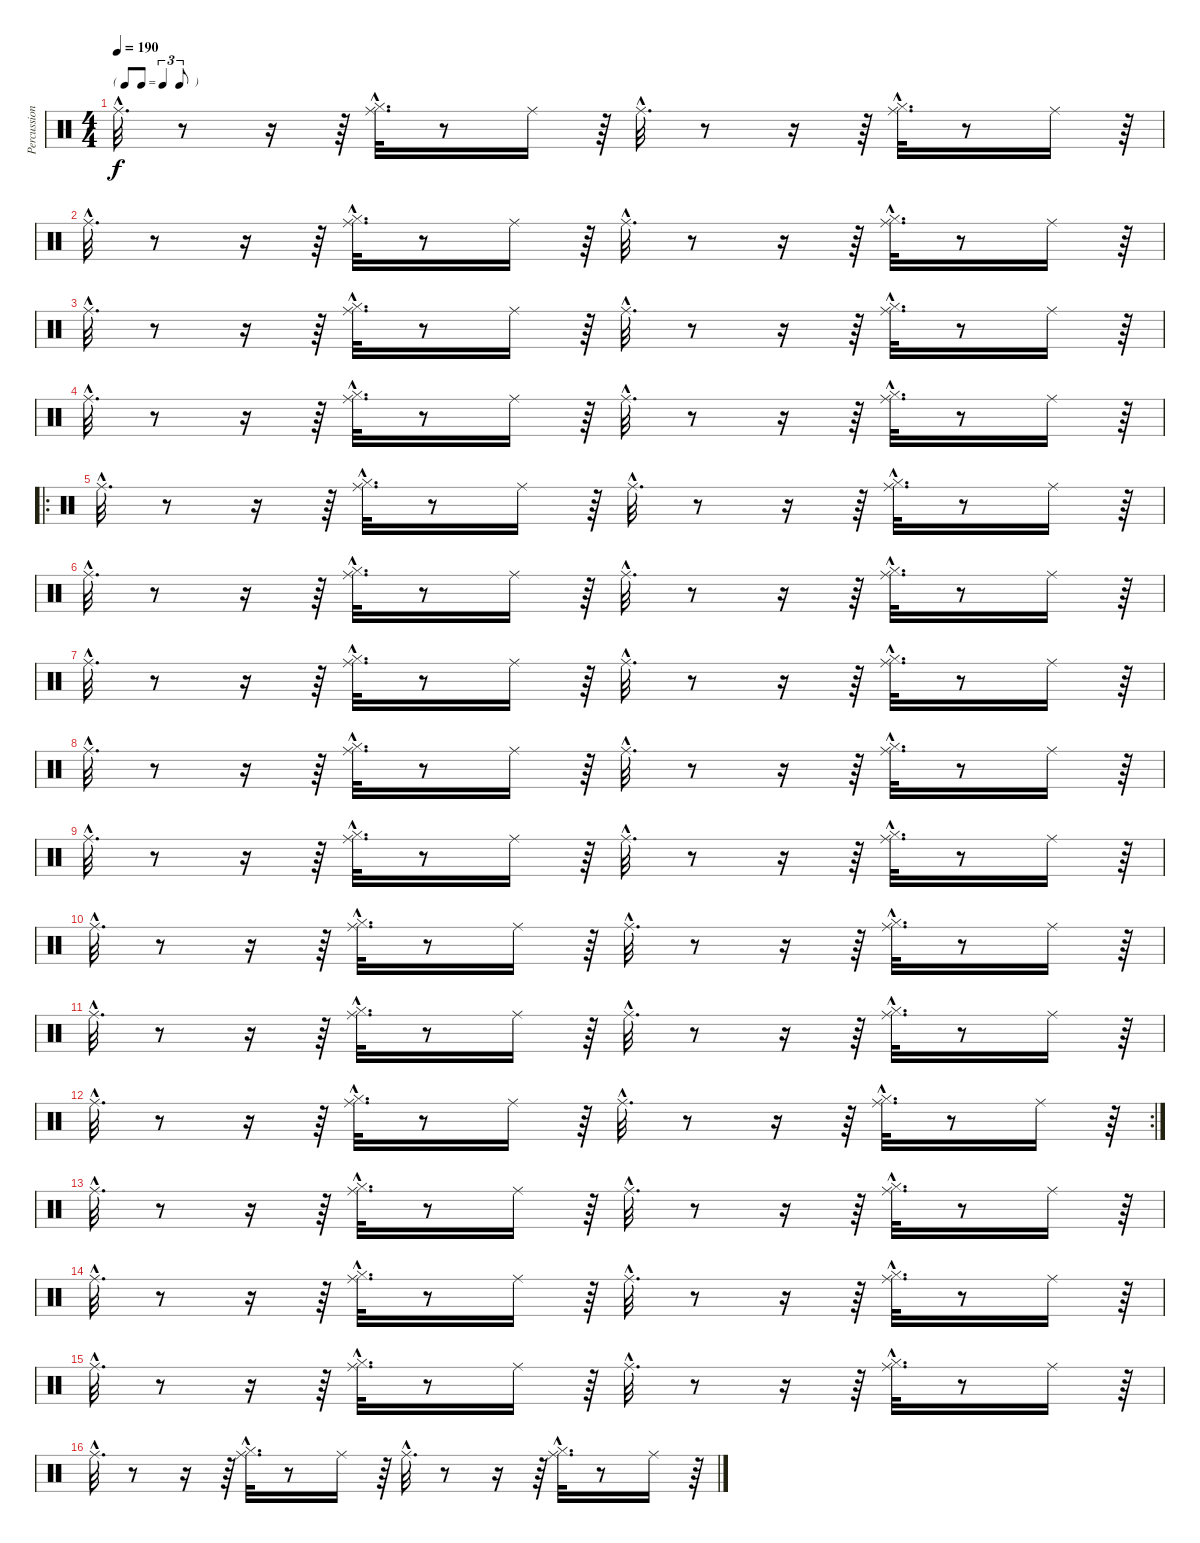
\track ("Percussions" "Percussion") {instrument percussion}
\staff {score}
\articulation defaults
\ts (4 4)
\tf triplet8th
\tempo 190
\clef neutral
\ks c "Ride (middle)"{hac}.32{d dy f}
r.8 r.16 r.64 ("Hi-Hat (closed)"{hac} "Ride (middle)"{hac}).32{d} r.8 "Ride (middle)".16 r.64 "Ride (middle)"{hac}.32{d} r.8 r.16 r.64 ("Hi-Hat (closed)"{hac} "Ride (middle)"{hac}).32{d} r.8 "Ride (middle)".16 r.64 |
"Ride (middle)"{hac}.32{d} r.8 r.16 r.64 ("Hi-Hat (closed)"{hac} "Ride (middle)"{hac}).32{d} r.8 "Ride (middle)".16 r.64 "Ride (middle)"{hac}.32{d} r.8 r.16 r.64 ("Hi-Hat (closed)"{hac} "Ride (middle)"{hac}).32{d} r.8 "Ride (middle)".16 r.64 |
"Ride (middle)"{hac}.32{d} r.8 r.16 r.64 ("Hi-Hat (closed)"{hac} "Ride (middle)"{hac}).32{d} r.8 "Ride (middle)".16 r.64 "Ride (middle)"{hac}.32{d} r.8 r.16 r.64 ("Hi-Hat (closed)"{hac} "Ride (middle)"{hac}).32{d} r.8 "Ride (middle)".16 r.64 |
"Ride (middle)"{hac}.32{d} r.8 r.16 r.64 ("Hi-Hat (closed)"{hac} "Ride (middle)"{hac}).32{d} r.8 "Ride (middle)".16 r.64 "Ride (middle)"{hac}.32{d} r.8 r.16 r.64 ("Hi-Hat (closed)"{hac} "Ride (middle)"{hac}).32{d} r.8 "Ride (middle)".16 r.64 |
\ro "Ride (middle)"{hac}.32{d}
r.8 r.16 r.64 ("Hi-Hat (closed)"{hac} "Ride (middle)"{hac}).32{d} r.8 "Ride (middle)".16 r.64 "Ride (middle)"{hac}.32{d} r.8 r.16 r.64 ("Hi-Hat (closed)"{hac} "Ride (middle)"{hac}).32{d} r.8 "Ride (middle)".16 r.64 |
"Ride (middle)"{hac}.32{d} r.8 r.16 r.64 ("Hi-Hat (closed)"{hac} "Ride (middle)"{hac}).32{d} r.8 "Ride (middle)".16 r.64 "Ride (middle)"{hac}.32{d} r.8 r.16 r.64 ("Hi-Hat (closed)"{hac} "Ride (middle)"{hac}).32{d} r.8 "Ride (middle)".16 r.64 |
"Ride (middle)"{hac}.32{d} r.8 r.16 r.64 ("Hi-Hat (closed)"{hac} "Ride (middle)"{hac}).32{d} r.8 "Ride (middle)".16 r.64 "Ride (middle)"{hac}.32{d} r.8 r.16 r.64 ("Hi-Hat (closed)"{hac} "Ride (middle)"{hac}).32{d} r.8 "Ride (middle)".16 r.64 |
"Ride (middle)"{hac}.32{d} r.8 r.16 r.64 ("Hi-Hat (closed)"{hac} "Ride (middle)"{hac}).32{d} r.8 "Ride (middle)".16 r.64 "Ride (middle)"{hac}.32{d} r.8 r.16 r.64 ("Hi-Hat (closed)"{hac} "Ride (middle)"{hac}).32{d} r.8 "Ride (middle)".16 r.64 |
"Ride (middle)"{hac}.32{d} r.8 r.16 r.64 ("Hi-Hat (closed)"{hac} "Ride (middle)"{hac}).32{d} r.8 "Ride (middle)".16 r.64 "Ride (middle)"{hac}.32{d} r.8 r.16 r.64 ("Hi-Hat (closed)"{hac} "Ride (middle)"{hac}).32{d} r.8 "Ride (middle)".16 r.64 |
"Ride (middle)"{hac}.32{d} r.8 r.16 r.64 ("Hi-Hat (closed)"{hac} "Ride (middle)"{hac}).32{d} r.8 "Ride (middle)".16 r.64 "Ride (middle)"{hac}.32{d} r.8 r.16 r.64 ("Hi-Hat (closed)"{hac} "Ride (middle)"{hac}).32{d} r.8 "Ride (middle)".16 r.64 |
"Ride (middle)"{hac}.32{d} r.8 r.16 r.64 ("Hi-Hat (closed)"{hac} "Ride (middle)"{hac}).32{d} r.8 "Ride (middle)".16 r.64 "Ride (middle)"{hac}.32{d} r.8 r.16 r.64 ("Hi-Hat (closed)"{hac} "Ride (middle)"{hac}).32{d} r.8 "Ride (middle)".16 r.64 |
\rc 2 "Ride (middle)"{hac}.32{d}
r.8 r.16 r.64 ("Hi-Hat (closed)"{hac} "Ride (middle)"{hac}).32{d} r.8 "Ride (middle)".16 r.64 "Ride (middle)"{hac}.32{d} r.8 r.16 r.64 ("Hi-Hat (closed)"{hac} "Ride (middle)"{hac}).32{d} r.8 "Ride (middle)".16 r.64 |
"Ride (middle)"{hac}.32{d} r.8 r.16 r.64 ("Hi-Hat (closed)"{hac} "Ride (middle)"{hac}).32{d} r.8 "Ride (middle)".16 r.64 "Ride (middle)"{hac}.32{d} r.8 r.16 r.64 ("Hi-Hat (closed)"{hac} "Ride (middle)"{hac}).32{d} r.8 "Ride (middle)".16 r.64 |
"Ride (middle)"{hac}.32{d} r.8 r.16 r.64 ("Hi-Hat (closed)"{hac} "Ride (middle)"{hac}).32{d} r.8 "Ride (middle)".16 r.64 "Ride (middle)"{hac}.32{d} r.8 r.16 r.64 ("Hi-Hat (closed)"{hac} "Ride (middle)"{hac}).32{d} r.8 "Ride (middle)".16 r.64 |
"Ride (middle)"{hac}.32{d} r.8 r.16 r.64 ("Hi-Hat (closed)"{hac} "Ride (middle)"{hac}).32{d} r.8 "Ride (middle)".16 r.64 "Ride (middle)"{hac}.32{d} r.8 r.16 r.64 ("Hi-Hat (closed)"{hac} "Ride (middle)"{hac}).32{d} r.8 "Ride (middle)".16 r.64 |
"Ride (middle)"{hac}.32{d} r.8 r.16 r.64 ("Hi-Hat (closed)"{hac} "Ride (middle)"{hac}).32{d} r.8 "Ride (middle)".16 r.64 "Ride (middle)"{hac}.32{d} r.8 r.16 r.64 ("Hi-Hat (closed)"{hac} "Ride (middle)"{hac}).32{d} r.8 "Ride (middle)".16 r.64
